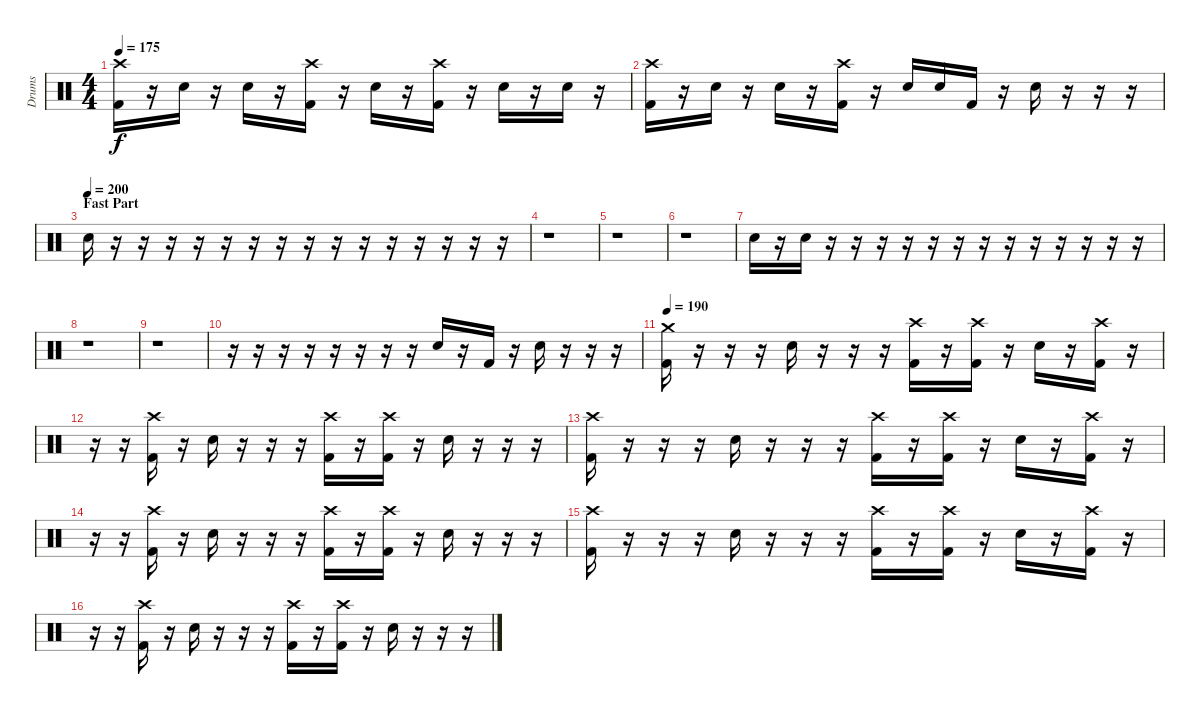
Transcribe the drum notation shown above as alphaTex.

\track ("Drums" "Drums") {instrument percussion}
\staff {score}
\articulation defaults
\ts (4 4)
\tempo 175
\clef neutral
\ks c
("Crash high (hit)" "Kick (hit) 2").16{dy f} r.16 "Snare (hit) 2".16 r.16 "Snare (hit) 2".16 r.16 ("Crash high (hit)" "Kick (hit) 2").16 r.16 "Snare (hit) 2".16 r.16 ("Crash high (hit)" "Kick (hit) 2").16 r.16 "Snare (hit) 2".16 r.16 "Snare (hit) 2".16 r.16 |
("Crash high (hit)" "Kick (hit) 2").16 r.16 "Snare (hit) 2".16 r.16 "Snare (hit) 2".16 r.16 ("Crash high (hit)" "Kick (hit) 2").16 r.16 "Snare (hit) 2".16 "Snare (hit) 2".16 "Kick (hit) 2".16 r.16 "Snare (hit) 2".16 r.16 r.16 r.16 |
\section ("" "Fast Part")
\tempo (200)
"Snare (hit) 2".16 r.16 r.16 r.16 r.16 r.16 r.16 r.16 r.16 r.16 r.16 r.16 r.16 r.16 r.16 r.16 |
r.1 |
r.1 |
r.1 |
"Snare (hit) 2".16 r.16 "Snare (hit) 2".16 r.16 r.16 r.16 r.16 r.16 r.16 r.16 r.16 r.16 r.16 r.16 r.16 r.16 |
r.1 |
r.1 |
r.16 r.16 r.16 r.16 r.16 r.16 r.16 r.16 "Snare (hit) 2".16 r.16 "Kick (hit) 2".16 r.16 "Snare (hit) 2".16 r.16 r.16 r.16 |
\tempo 190
("Crash medium (hit)" "Kick (hit) 2").16 r.16 r.16 r.16 "Snare (hit) 2".16 r.16 r.16 r.16 ("Crash high (hit)" "Kick (hit) 2").16 r.16 ("Crash high (hit)" "Kick (hit) 2").16 r.16 "Snare (hit) 2".16 r.16 ("Crash high (hit)" "Kick (hit) 2").16 r.16 |
r.16 r.16 ("Crash high (hit)" "Kick (hit) 2").16 r.16 "Snare (hit) 2".16 r.16 r.16 r.16 ("Crash high (hit)" "Kick (hit) 2").16 r.16 ("Crash high (hit)" "Kick (hit) 2").16 r.16 "Snare (hit) 2".16 r.16 r.16 r.16 |
("Crash high (hit)" "Kick (hit) 2").16 r.16 r.16 r.16 "Snare (hit) 2".16 r.16 r.16 r.16 ("Crash high (hit)" "Kick (hit) 2").16 r.16 ("Crash high (hit)" "Kick (hit) 2").16 r.16 "Snare (hit) 2".16 r.16 ("Crash high (hit)" "Kick (hit) 2").16 r.16 |
r.16 r.16 ("Crash high (hit)" "Kick (hit) 2").16 r.16 "Snare (hit) 2".16 r.16 r.16 r.16 ("Crash high (hit)" "Kick (hit) 2").16 r.16 ("Crash high (hit)" "Kick (hit) 2").16 r.16 "Snare (hit) 2".16 r.16 r.16 r.16 |
("Crash high (hit)" "Kick (hit) 2").16 r.16 r.16 r.16 "Snare (hit) 2".16 r.16 r.16 r.16 ("Crash high (hit)" "Kick (hit) 2").16 r.16 ("Crash high (hit)" "Kick (hit) 2").16 r.16 "Snare (hit) 2".16 r.16 ("Crash high (hit)" "Kick (hit) 2").16 r.16 |
r.16 r.16 ("Crash high (hit)" "Kick (hit) 2").16 r.16 "Snare (hit) 2".16 r.16 r.16 r.16 ("Crash high (hit)" "Kick (hit) 2").16 r.16 ("Crash high (hit)" "Kick (hit) 2").16 r.16 "Snare (hit) 2".16 r.16 r.16 r.16
